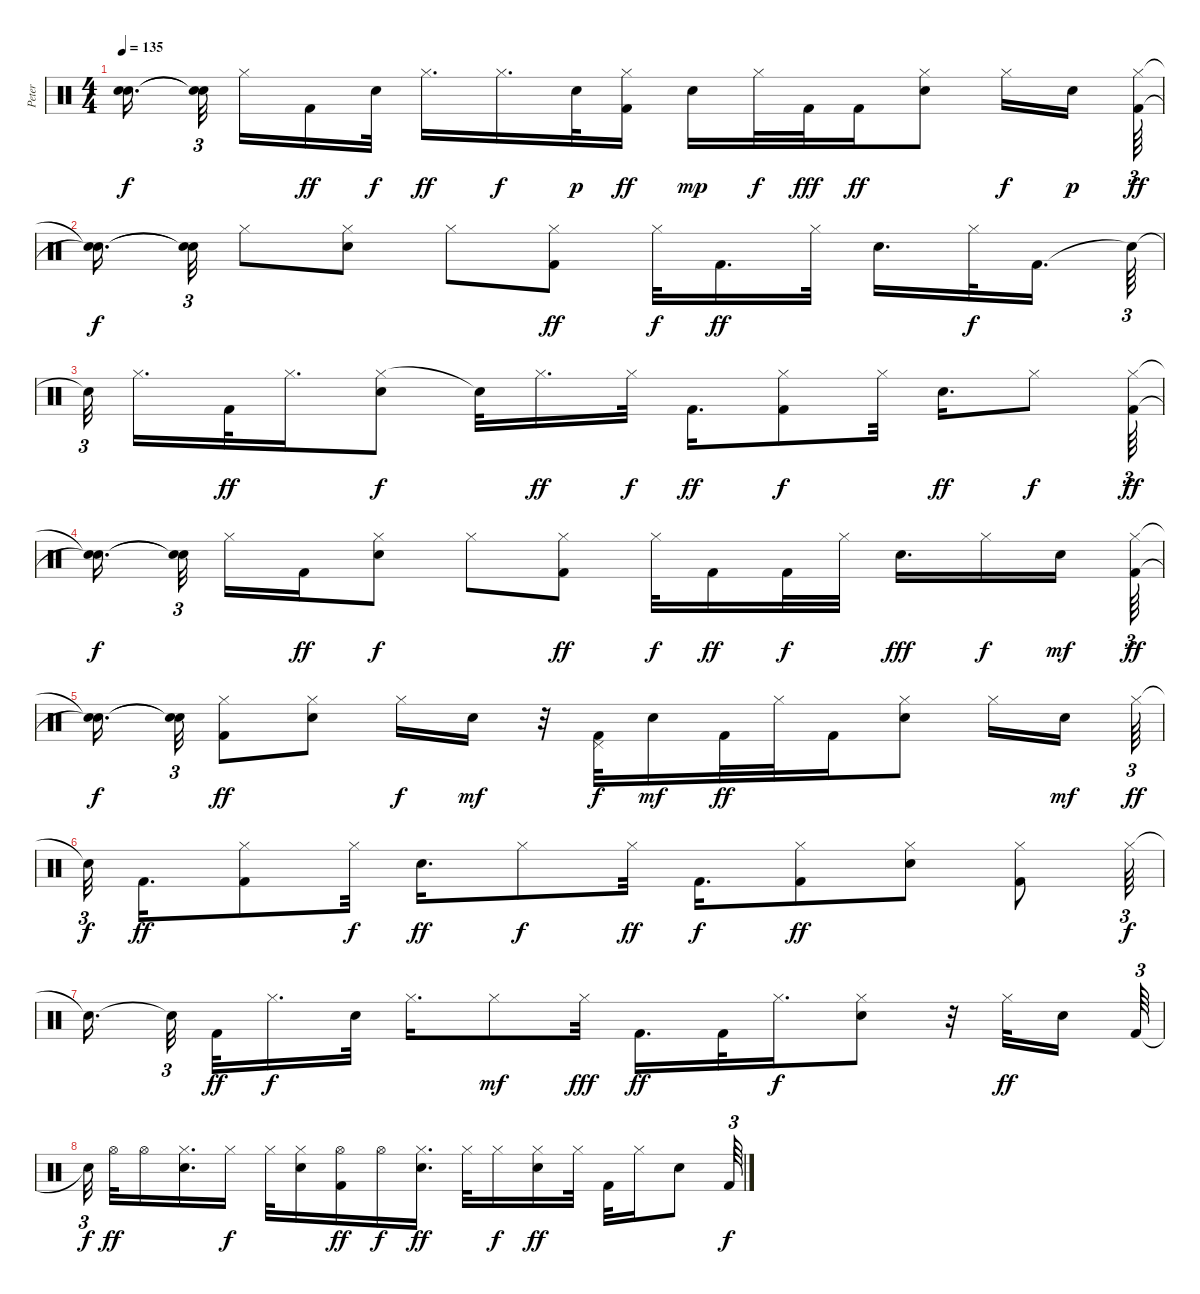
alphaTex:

\track ("Peter" "Peter") {instrument percussion}
\staff {score}
\articulation defaults
\ts (4 4)
\tempo 135
\clef neutral
\ks c
("Snare (hit)"{t} "Snare (hit)"{t}).16{d dy f} ("Snare (hit)"{t} "Snare (hit)"{t}).32{tu (3 2)} "Hi-Hat (closed)".16 "Kick (hit) 2".16{dy ff} "Electric Snare (hit)".32{dy f} "Hi-Hat (closed)".16{d dy ff} "Hi-Hat (closed)".16{d dy f} "Electric Snare (hit)".32{dy p} ("Kick (hit) 2" "Hi-Hat (closed)").16{dy ff} "Electric Snare (hit)".16{dy mp} "Hi-Hat (closed)".32{dy f} "Kick (hit) 2".32{dy fff} "Kick (hit) 2".16{dy ff} ("Hi-Hat (closed)" "Electric Snare (hit)").8 "Hi-Hat (closed)".16{dy f} "Electric Snare (hit)".16{dy p} ("Hi-Hat (closed)" "Kick (hit) 2").64{tu (3 2) dy ff} |
("Snare (hit)"{t} "Snare (hit)"{t}).16{d dy f} ("Snare (hit)"{t} "Snare (hit)"{t}).32{tu (3 2)} "Hi-Hat (closed)".8 ("Electric Snare (hit)" "Hi-Hat (closed)").8 "Hi-Hat (closed)".8 ("Hi-Hat (closed)" "Kick (hit) 2").8{dy ff} "Hi-Hat (closed)".32{dy f} "Kick (hit) 2".16{d dy ff} "Hi-Hat (closed)".32 "Electric Snare (hit)".16{d} "Hi-Hat (closed)".32{dy f} "Kick (hit) 2".16{d} "Snare (hit)"{t}.64{tu (3 2)} |
"Snare (hit)"{t}.32{tu (3 2)} "Hi-Hat (closed)".16{d} "Kick (hit) 2".32{dy ff} "Hi-Hat (closed)".16{d} ("Hi-Hat (closed)" "Electric Snare (hit)").8{dy f} "Snare (hit)"{t}.32 "Hi-Hat (closed)".16{d dy ff} "Hi-Hat (closed)".32{dy f} "Kick (hit) 2".16{d dy ff} ("Kick (hit) 2" "Hi-Hat (closed)").8{dy f} "Hi-Hat (closed)".32 "Electric Snare (hit)".16{d dy ff} "Hi-Hat (closed)".8{dy f} ("Kick (hit) 2" "Hi-Hat (closed)").64{tu (3 2) dy ff} |
("Snare (hit)"{t} "Snare (hit)"{t}).16{d dy f} ("Snare (hit)"{t} "Snare (hit)"{t}).32{tu (3 2)} "Hi-Hat (closed)".16 "Kick (hit) 2".16{dy ff} ("Hi-Hat (closed)" "Electric Snare (hit)").8{dy f} "Hi-Hat (closed)".8 ("Hi-Hat (closed)" "Kick (hit) 2").8{dy ff} "Hi-Hat (closed)".32{dy f} "Kick (hit) 2".16{dy ff} "Kick (hit) 2".32{dy f} "Hi-Hat (closed)".32 "Electric Snare (hit)".16{d dy fff} "Hi-Hat (closed)".16{dy f} "Electric Snare (hit)".16{dy mf} ("Kick (hit) 2" "Hi-Hat (closed)").64{tu (3 2) dy ff} |
("Snare (hit)"{t} "Snare (hit)"{t}).16{d dy f} ("Snare (hit)"{t} "Snare (hit)"{t}).32{tu (3 2)} ("Hi-Hat (closed)" "Kick (hit) 2").8{dy ff} ("Hi-Hat (closed)" "Electric Snare (hit)").8 "Hi-Hat (closed)".16{dy f} "Electric Snare (hit)".16{dy mf} r.32 ("Pedal Hi-Hat (hit)" "Kick (hit) 2").32{dy f} "Electric Snare (hit)".16{dy mf} "Kick (hit) 2".32{dy ff} "Hi-Hat (closed)".32 "Kick (hit) 2".16 ("Electric Snare (hit)" "Hi-Hat (closed)").8 "Hi-Hat (closed)".16 "Electric Snare (hit)".16{dy mf} "Hi-Hat (closed)".64{tu (3 2) dy ff} |
"Snare (hit)"{t}.32{tu (3 2) dy f} "Kick (hit) 2".16{d dy ff} ("Kick (hit) 2" "Hi-Hat (closed)").8 "Hi-Hat (closed)".32{dy f} "Electric Snare (hit)".16{d dy ff} "Hi-Hat (closed)".8{dy f} "Hi-Hat (closed)".32{dy ff} "Kick (hit) 2".16{d dy f} ("Hi-Hat (closed)" "Kick (hit) 2").8{dy ff} ("Electric Snare (hit)" "Hi-Hat (closed)").8 ("Kick (hit) 2" "Hi-Hat (closed)").8 "Hi-Hat (closed)".64{tu (3 2) dy f} |
"Snare (hit)"{t}.16{d} "Snare (hit)"{t}.32{tu (3 2)} "Kick (hit) 2".32{dy ff} "Hi-Hat (closed)".16{d dy f} "Electric Snare (hit)".32 "Hi-Hat (closed)".16{d} "Hi-Hat (closed)".8{dy mf} "Hi-Hat (closed)".32{dy fff} "Kick (hit) 2".16{d dy ff} "Kick (hit) 2".32 "Hi-Hat (closed)".16{d dy f} ("Electric Snare (hit)" "Hi-Hat (closed)").8 r.32 "Hi-Hat (closed)".32{dy ff} "Electric Snare (hit)".16 "Kick (hit) 2".64{tu (3 2)} |
"Snare (hit)"{t}.32{tu (3 2) dy f} "Hi-Hat (open)".32{dy ff} "Hi-Hat (open)".16 ("Electric Snare (hit)" "Hi-Hat (closed)").16{d} "Hi-Hat (closed)".16{dy f} "Hi-Hat (closed)".32 ("Hi-Hat (closed)" "Electric Snare (hit)").16 ("Hi-Hat (open)" "Kick (hit) 2").16{dy ff} "Hi-Hat (open)".16{dy f} ("Electric Snare (hit)" "Hi-Hat (closed)").16{d dy ff} "Hi-Hat (closed)".32 "Hi-Hat (closed)".16{dy f} ("Hi-Hat (closed)" "Electric Snare (hit)").16{dy ff} "Hi-Hat (closed)".32 "Kick (hit) 2".32 "Hi-Hat (closed)".16 "Electric Snare (hit)".8 "Kick (hit) 2".64{tu (3 2) dy f}
